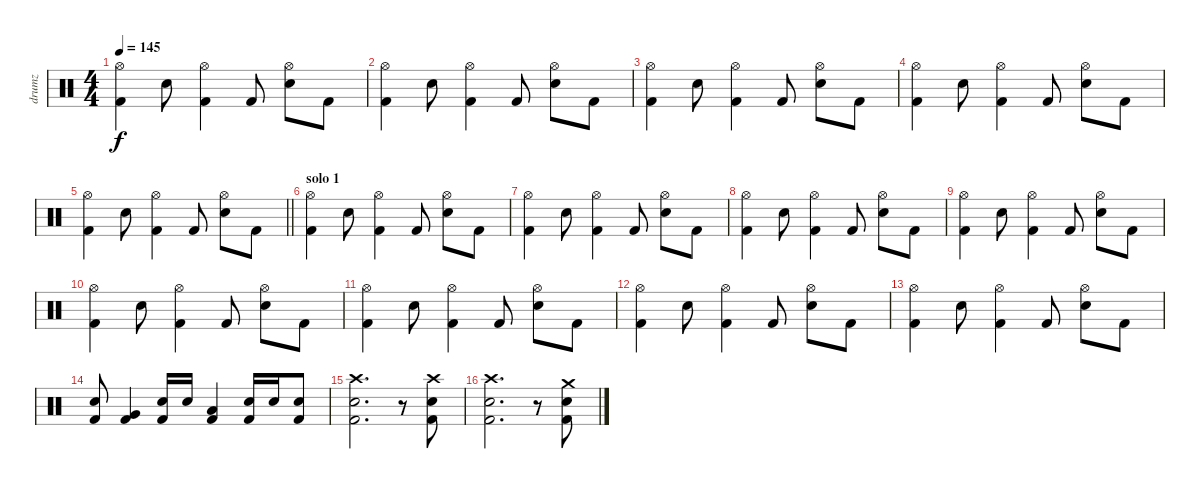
\track ("drumz" "drumz") {instrument percussion}
\staff {score}
\articulation defaults
\ts (4 4)
\tempo 145
\clef neutral
\ks c
("Hi-Hat (open)" "Kick (hit) 2").4{dy f} "Electric Snare (hit)".8 ("Hi-Hat (open)" "Kick (hit) 2").4 "Kick (hit) 2".8 ("Hi-Hat (open)" "Electric Snare (hit)").8 "Kick (hit) 2".8 |
("Hi-Hat (open)" "Kick (hit) 2").4 "Electric Snare (hit)".8 ("Hi-Hat (open)" "Kick (hit) 2").4 "Kick (hit) 2".8 ("Hi-Hat (open)" "Electric Snare (hit)").8 "Kick (hit) 2".8 |
("Hi-Hat (open)" "Kick (hit) 2").4 "Electric Snare (hit)".8 ("Hi-Hat (open)" "Kick (hit) 2").4 "Kick (hit) 2".8 ("Hi-Hat (open)" "Electric Snare (hit)").8 "Kick (hit) 2".8 |
("Hi-Hat (open)" "Kick (hit) 2").4 "Electric Snare (hit)".8 ("Hi-Hat (open)" "Kick (hit) 2").4 "Kick (hit) 2".8 ("Hi-Hat (open)" "Electric Snare (hit)").8 "Kick (hit) 2".8 |
\barLineRight lightlight
("Hi-Hat (open)" "Kick (hit) 2").4 "Electric Snare (hit)".8 ("Hi-Hat (open)" "Kick (hit) 2").4 "Kick (hit) 2".8 ("Hi-Hat (open)" "Electric Snare (hit)").8 "Kick (hit) 2".8 |
\section ("" "solo 1")
("Hi-Hat (open)" "Kick (hit) 2").4 "Electric Snare (hit)".8 ("Hi-Hat (open)" "Kick (hit) 2").4 "Kick (hit) 2".8 ("Hi-Hat (open)" "Electric Snare (hit)").8 "Kick (hit) 2".8 |
("Hi-Hat (open)" "Kick (hit) 2").4 "Electric Snare (hit)".8 ("Hi-Hat (open)" "Kick (hit) 2").4 "Kick (hit) 2".8 ("Hi-Hat (open)" "Electric Snare (hit)").8 "Kick (hit) 2".8 |
("Hi-Hat (open)" "Kick (hit) 2").4 "Electric Snare (hit)".8 ("Hi-Hat (open)" "Kick (hit) 2").4 "Kick (hit) 2".8 ("Hi-Hat (open)" "Electric Snare (hit)").8 "Kick (hit) 2".8 |
("Hi-Hat (open)" "Kick (hit) 2").4 "Electric Snare (hit)".8 ("Hi-Hat (open)" "Kick (hit) 2").4 "Kick (hit) 2".8 ("Hi-Hat (open)" "Electric Snare (hit)").8 "Kick (hit) 2".8 |
("Hi-Hat (open)" "Kick (hit) 2").4 "Electric Snare (hit)".8 ("Hi-Hat (open)" "Kick (hit) 2").4 "Kick (hit) 2".8 ("Hi-Hat (open)" "Electric Snare (hit)").8 "Kick (hit) 2".8 |
("Hi-Hat (open)" "Kick (hit) 2").4 "Electric Snare (hit)".8 ("Hi-Hat (open)" "Kick (hit) 2").4 "Kick (hit) 2".8 ("Hi-Hat (open)" "Electric Snare (hit)").8 "Kick (hit) 2".8 |
("Hi-Hat (open)" "Kick (hit) 2").4 "Electric Snare (hit)".8 ("Hi-Hat (open)" "Kick (hit) 2").4 "Kick (hit) 2".8 ("Hi-Hat (open)" "Electric Snare (hit)").8 "Kick (hit) 2".8 |
("Hi-Hat (open)" "Kick (hit) 2").4 "Electric Snare (hit)".8 ("Hi-Hat (open)" "Kick (hit) 2").4 "Kick (hit) 2".8 ("Hi-Hat (open)" "Electric Snare (hit)").8 "Kick (hit) 2".8 |
("Electric Snare (hit)" "Kick (hit) 2").8 ("Very Low Tom (hit)" "Kick (hit) 2").4 ("Electric Snare (hit)" "Kick (hit) 2").16 "Electric Snare (hit)".16 ("Low Floor Tom (hit)" "Kick (hit) 2").4 ("Electric Snare (hit)" "Kick (hit) 2").16 "Electric Snare (hit)".16 ("Electric Snare (hit)" "Kick (hit) 2").8 |
("Crash high (hit)" "Electric Snare (hit)" "Kick (hit) 2").2{d} r.8 ("Crash high (hit)" "Electric Snare (hit)" "Kick (hit) 2").8 |
("Crash high (hit)" "Electric Snare (hit)" "Kick (hit) 2").2{d} r.8 ("Crash medium (hit)" "Electric Snare (hit)" "Kick (hit) 2").8
